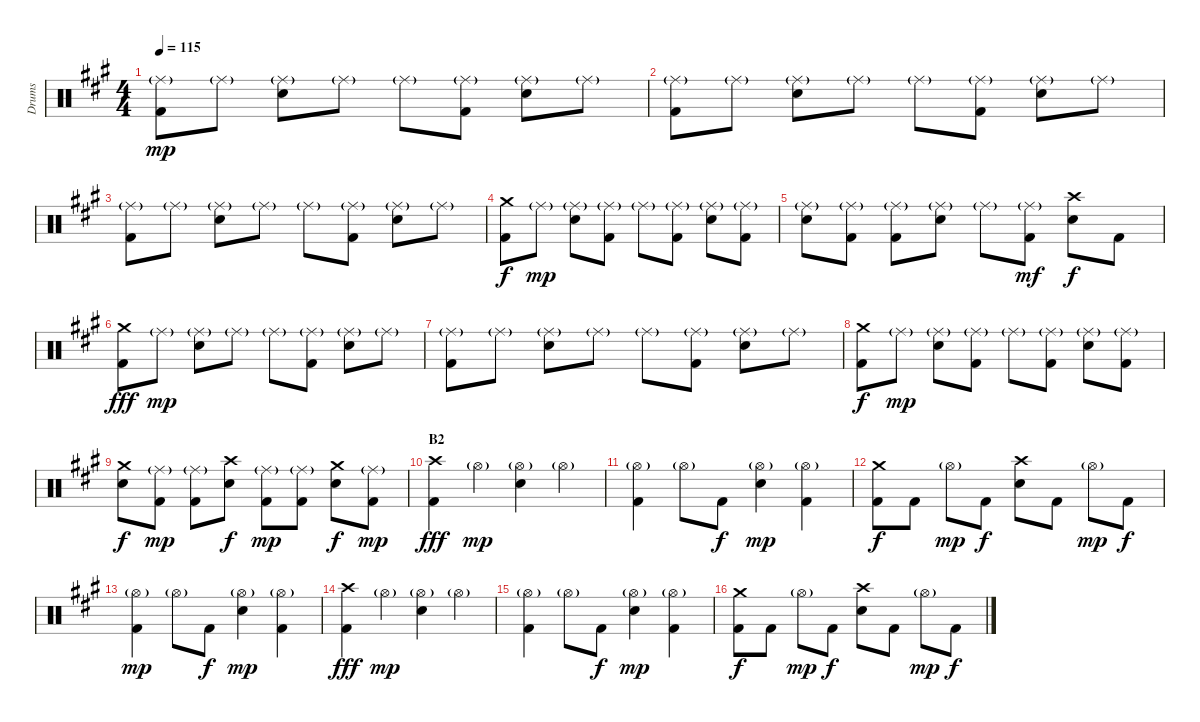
\track ("Drums" "Drums") {instrument percussion}
\staff {score}
\articulation defaults
\ts (4 4)
\tempo 115
\clef neutral
\ks a
("Ride (middle)"{g} "Kick (hit) 2").8{dy mp} "Ride (middle)"{g}.8 ("Ride (middle)"{g} "Snare (hit) 2").8 "Ride (middle)"{g}.8 "Ride (middle)"{g}.8 ("Ride (middle)"{g} "Kick (hit) 2").8 ("Ride (middle)"{g} "Snare (hit) 2").8 "Ride (middle)"{g}.8 |
("Ride (middle)"{g} "Kick (hit) 2").8 "Ride (middle)"{g}.8 ("Ride (middle)"{g} "Snare (hit) 2").8 "Ride (middle)"{g}.8 "Ride (middle)"{g}.8 ("Ride (middle)"{g} "Kick (hit) 2").8 ("Ride (middle)"{g} "Snare (hit) 2").8 "Ride (middle)"{g}.8 |
("Ride (middle)"{g} "Kick (hit) 2").8 "Ride (middle)"{g}.8 ("Ride (middle)"{g} "Snare (hit) 2").8 "Ride (middle)"{g}.8 "Ride (middle)"{g}.8 ("Ride (middle)"{g} "Kick (hit) 2").8 ("Ride (middle)"{g} "Snare (hit) 2").8 "Ride (middle)"{g}.8 |
("Crash medium (hit)" "Kick (hit) 2").8{dy f} "Ride (middle)"{g}.8{dy mp} ("Ride (middle)"{g} "Snare (hit) 2").8 ("Ride (middle)"{g} "Kick (hit) 2").8 "Ride (middle)"{g}.8 ("Ride (middle)"{g} "Kick (hit) 2").8 ("Ride (middle)"{g} "Snare (hit) 2").8 ("Ride (middle)"{g} "Kick (hit) 2").8 |
("Ride (middle)"{g} "Snare (hit) 2").8 ("Ride (middle)"{g} "Kick (hit) 2").8 ("Ride (middle)"{g} "Kick (hit) 2").8 ("Ride (middle)"{g} "Snare (hit) 2").8 "Ride (middle)"{g}.8 ("Ride (middle)"{g} "Kick (hit) 2").8{dy mf} ("Crash high (hit)" "Snare (hit) 2").8{dy f} "Kick (hit) 2".8 |
("Crash medium (hit)" "Kick (hit) 2").8{dy fff} "Ride (middle)"{g}.8{dy mp} ("Ride (middle)"{g} "Snare (hit) 2").8 "Ride (middle)"{g}.8 "Ride (middle)"{g}.8 ("Ride (middle)"{g} "Kick (hit) 2").8 ("Ride (middle)"{g} "Snare (hit) 2").8 "Ride (middle)"{g}.8 |
("Ride (middle)"{g} "Kick (hit) 2").8 "Ride (middle)"{g}.8 ("Ride (middle)"{g} "Snare (hit) 2").8 "Ride (middle)"{g}.8 "Ride (middle)"{g}.8 ("Ride (middle)"{g} "Kick (hit) 2").8 ("Ride (middle)"{g} "Snare (hit) 2").8 "Ride (middle)"{g}.8 |
("Crash medium (hit)" "Kick (hit) 2").8{dy f} "Ride (middle)"{g}.8{dy mp} ("Ride (middle)"{g} "Snare (hit) 2").8 ("Ride (middle)"{g} "Kick (hit) 2").8 "Ride (middle)"{g}.8 ("Ride (middle)"{g} "Kick (hit) 2").8 ("Ride (middle)"{g} "Snare (hit) 2").8 ("Ride (middle)"{g} "Kick (hit) 2").8 |
("Crash medium (hit)" "Snare (hit) 2").8{dy f} ("Ride (middle)"{g} "Kick (hit) 2").8{dy mp} ("Ride (middle)"{g} "Kick (hit) 2").8 ("Crash high (hit)" "Snare (hit) 2").8{dy f} ("Ride (middle)"{g} "Kick (hit) 2").8{dy mp} ("Ride (middle)"{g} "Kick (hit) 2").8 ("Crash medium (hit)" "Snare (hit) 2").8{dy f} ("Ride (middle)"{g} "Kick (hit) 2").8{dy mp} |
\section ("" "B2")
("Crash high (hit)" "Kick (hit) 2").4{dy fff} "Hi-Hat (open)"{g}.4{dy mp} ("Hi-Hat (open)"{g} "Snare (hit) 2").4 "Hi-Hat (open)"{g}.4 |
("Hi-Hat (open)"{g} "Kick (hit) 2").4 "Hi-Hat (open)"{g}.8 "Kick (hit) 2".8{dy f} ("Hi-Hat (open)"{g} "Snare (hit) 2").4{dy mp} ("Hi-Hat (open)"{g} "Kick (hit) 2").4 |
("Crash medium (hit)" "Kick (hit) 2").8{dy f} "Kick (hit) 2".8 "Hi-Hat (open)"{g}.8{dy mp} "Kick (hit) 2".8{dy f} ("Crash high (hit)" "Snare (hit) 2").8 "Kick (hit) 2".8 "Hi-Hat (open)"{g}.8{dy mp} "Kick (hit) 2".8{dy f} |
("Hi-Hat (open)"{g} "Kick (hit) 2").4{dy mp} "Hi-Hat (open)"{g}.8 "Kick (hit) 2".8{dy f} ("Hi-Hat (open)"{g} "Snare (hit) 2").4{dy mp} ("Hi-Hat (open)"{g} "Kick (hit) 2").4 |
("Crash high (hit)" "Kick (hit) 2").4{dy fff} "Hi-Hat (open)"{g}.4{dy mp} ("Hi-Hat (open)"{g} "Snare (hit) 2").4 "Hi-Hat (open)"{g}.4 |
("Hi-Hat (open)"{g} "Kick (hit) 2").4 "Hi-Hat (open)"{g}.8 "Kick (hit) 2".8{dy f} ("Hi-Hat (open)"{g} "Snare (hit) 2").4{dy mp} ("Hi-Hat (open)"{g} "Kick (hit) 2").4 |
("Crash medium (hit)" "Kick (hit) 2").8{dy f} "Kick (hit) 2".8 "Hi-Hat (open)"{g}.8{dy mp} "Kick (hit) 2".8{dy f} ("Crash high (hit)" "Snare (hit) 2").8 "Kick (hit) 2".8 "Hi-Hat (open)"{g}.8{dy mp} "Kick (hit) 2".8{dy f}
